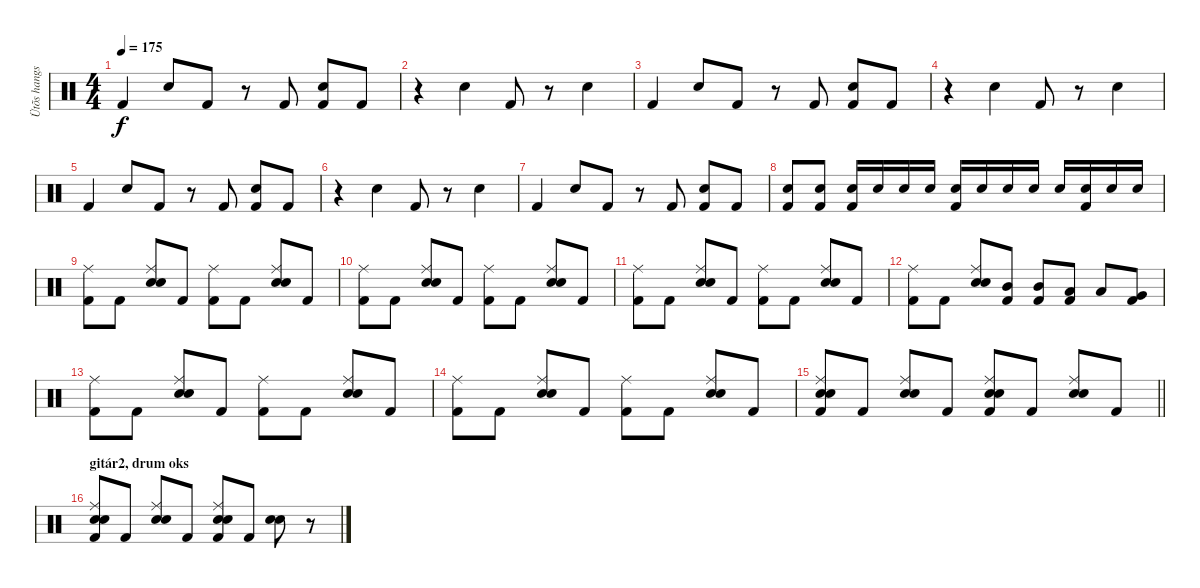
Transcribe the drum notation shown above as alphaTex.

\track ("Ütõs hangszer" "Ütõs hangs") {instrument percussion}
\staff {score}
\articulation defaults
\ts (4 4)
\tempo 175
\clef neutral
\ks c "Kick (hit) 2".4{dy f} "Snare (hit) 2".8 "Kick (hit) 2".8
r.8 "Kick (hit) 2".8 ("Snare (hit) 2" "Kick (hit) 2").8 "Kick (hit) 2".8 |
r.4 "Snare (hit) 2".4 "Kick (hit) 2".8 r.8 "Snare (hit) 2".4 |
"Kick (hit) 2".4 "Snare (hit) 2".8 "Kick (hit) 2".8 r.8 "Kick (hit) 2".8 ("Snare (hit) 2" "Kick (hit) 2").8 "Kick (hit) 2".8 |
r.4 "Snare (hit) 2".4 "Kick (hit) 2".8 r.8 "Snare (hit) 2".4 |
"Kick (hit) 2".4 "Snare (hit) 2".8 "Kick (hit) 2".8 r.8 "Kick (hit) 2".8 ("Snare (hit) 2" "Kick (hit) 2").8 "Kick (hit) 2".8 |
r.4 "Snare (hit) 2".4 "Kick (hit) 2".8 r.8 "Snare (hit) 2".4 |
"Kick (hit) 2".4 "Snare (hit) 2".8 "Kick (hit) 2".8 r.8 "Kick (hit) 2".8 ("Snare (hit) 2" "Kick (hit) 2").8 "Kick (hit) 2".8 |
("Snare (hit) 2" "Kick (hit) 2").8 ("Snare (hit) 2" "Kick (hit) 2").8 ("Snare (hit) 2" "Kick (hit) 2").16 "Snare (hit) 2".16 "Snare (hit) 2".16 "Snare (hit) 2".16 ("Snare (hit) 2" "Kick (hit) 2").16 "Snare (hit) 2".16 "Snare (hit) 2".16 "Snare (hit) 2".16 "Snare (hit) 2".16 ("Snare (hit) 2" "Kick (hit) 2").16 "Snare (hit) 2".16 "Snare (hit) 2".16 |
("Ride (middle)" "Kick (hit) 2").8 "Kick (hit) 2".8 ("Hand Clap (hit)" "Ride (middle)" "Snare (hit) 2").8 "Kick (hit) 2".8 ("Ride (middle)" "Kick (hit) 2").8 "Kick (hit) 2".8 ("Hand Clap (hit)" "Ride (middle)" "Snare (hit) 2").8 "Kick (hit) 2".8 |
("Ride (middle)" "Kick (hit) 2").8 "Kick (hit) 2".8 ("Hand Clap (hit)" "Ride (middle)" "Snare (hit) 2").8 "Kick (hit) 2".8 ("Ride (middle)" "Kick (hit) 2").8 "Kick (hit) 2".8 ("Hand Clap (hit)" "Ride (middle)" "Snare (hit) 2").8 "Kick (hit) 2".8 |
("Ride (middle)" "Kick (hit) 2").8 "Kick (hit) 2".8 ("Hand Clap (hit)" "Ride (middle)" "Snare (hit) 2").8 "Kick (hit) 2".8 ("Ride (middle)" "Kick (hit) 2").8 "Kick (hit) 2".8 ("Hand Clap (hit)" "Ride (middle)" "Snare (hit) 2").8 "Kick (hit) 2".8 |
("Ride (middle)" "Kick (hit) 2").8 "Kick (hit) 2".8 ("Hand Clap (hit)" "Ride (middle)" "Snare (hit) 2").8 ("Mid Tom (hit)" "Kick (hit) 2").8 ("Mid Tom (hit)" "Kick (hit) 2").8 ("Low Tom (hit)" "Kick (hit) 2").8 "Low Tom (hit)".8 ("Very Low Tom (hit)" "Kick (hit) 2").8 |
("Ride (middle)" "Kick (hit) 2").8 "Kick (hit) 2".8 ("Hand Clap (hit)" "Ride (middle)" "Snare (hit) 2").8 "Kick (hit) 2".8 ("Ride (middle)" "Kick (hit) 2").8 "Kick (hit) 2".8 ("Hand Clap (hit)" "Ride (middle)" "Snare (hit) 2").8 "Kick (hit) 2".8 |
("Ride (middle)" "Kick (hit) 2").8 "Kick (hit) 2".8 ("Hand Clap (hit)" "Ride (middle)" "Snare (hit) 2").8 "Kick (hit) 2".8 ("Ride (middle)" "Kick (hit) 2").8 "Kick (hit) 2".8 ("Hand Clap (hit)" "Ride (middle)" "Snare (hit) 2").8 "Kick (hit) 2".8 |
\barLineRight lightlight
("Hand Clap (hit)" "Ride (middle)" "Snare (hit) 2" "Kick (hit) 2").8 "Kick (hit) 2".8 ("Hand Clap (hit)" "Ride (middle)" "Snare (hit) 2").8 "Kick (hit) 2".8 ("Hand Clap (hit)" "Ride (middle)" "Snare (hit) 2" "Kick (hit) 2").8 "Kick (hit) 2".8 ("Hand Clap (hit)" "Ride (middle)" "Snare (hit) 2").8 "Kick (hit) 2".8 |
\section ("" "gitár2, drum oks")
("Hand Clap (hit)" "Ride (middle)" "Snare (hit) 2" "Kick (hit) 2").8 "Kick (hit) 2".8 ("Hand Clap (hit)" "Ride (middle)" "Snare (hit) 2").8 "Kick (hit) 2".8 ("Hand Clap (hit)" "Ride (middle)" "Snare (hit) 2" "Kick (hit) 2").8 "Kick (hit) 2".8 ("Hand Clap (hit)" "Snare (hit) 2").8 r.8
